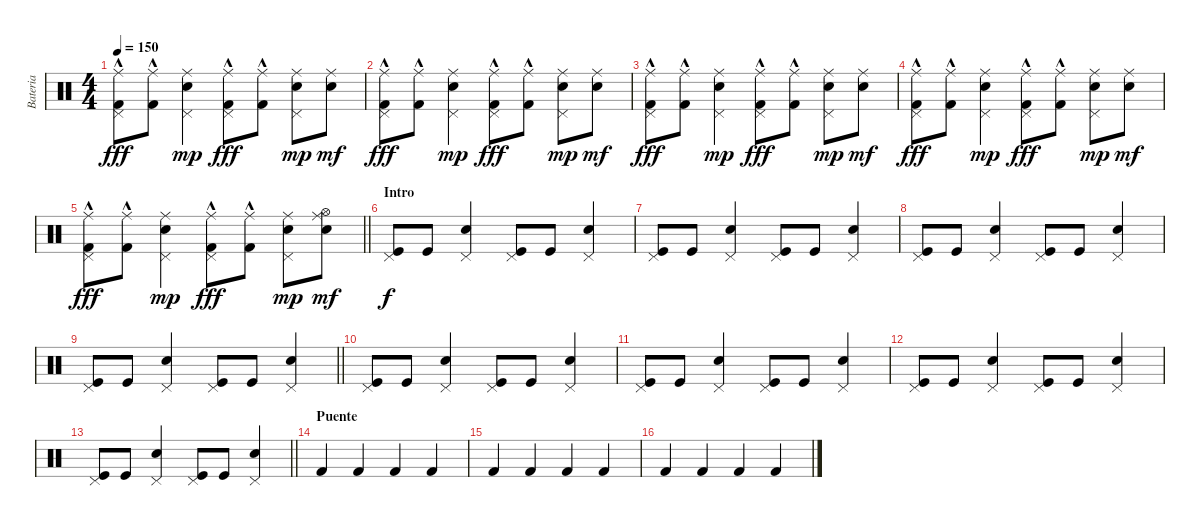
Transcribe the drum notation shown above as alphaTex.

\track ("Bateria" "Bateria") {instrument percussion}
\staff {score}
\articulation defaults
\ts (4 4)
\tempo 150
\clef neutral
\ks c
("Ride (middle)" "Pedal Hi-Hat (hit)" "Kick (hit) 2"{hac}).8{dy fff} ("Ride (middle)" "Kick (hit) 2"{hac}).8 ("Ride (middle)" "Pedal Hi-Hat (hit)" "Electric Snare (hit)").4{dy mp} ("Ride (middle)" "Pedal Hi-Hat (hit)" "Kick (hit) 2"{hac}).8{dy fff} ("Ride (middle)" "Kick (hit) 2"{hac}).8 ("Ride (middle)" "Pedal Hi-Hat (hit)" "Electric Snare (hit)").8{dy mp} ("Ride (middle)" "Electric Snare (hit)").8{dy mf} |
("Ride (middle)" "Pedal Hi-Hat (hit)" "Kick (hit) 2"{hac}).8{dy fff} ("Ride (middle)" "Kick (hit) 2"{hac}).8 ("Ride (middle)" "Pedal Hi-Hat (hit)" "Electric Snare (hit)").4{dy mp} ("Ride (middle)" "Pedal Hi-Hat (hit)" "Kick (hit) 2"{hac}).8{dy fff} ("Ride (middle)" "Kick (hit) 2"{hac}).8 ("Ride (middle)" "Pedal Hi-Hat (hit)" "Electric Snare (hit)").8{dy mp} ("Ride (middle)" "Electric Snare (hit)").8{dy mf} |
("Ride (middle)" "Pedal Hi-Hat (hit)" "Kick (hit) 2"{hac}).8{dy fff} ("Ride (middle)" "Kick (hit) 2"{hac}).8 ("Ride (middle)" "Pedal Hi-Hat (hit)" "Electric Snare (hit)").4{dy mp} ("Ride (middle)" "Pedal Hi-Hat (hit)" "Kick (hit) 2"{hac}).8{dy fff} ("Ride (middle)" "Kick (hit) 2"{hac}).8 ("Ride (middle)" "Pedal Hi-Hat (hit)" "Electric Snare (hit)").8{dy mp} ("Ride (middle)" "Electric Snare (hit)").8{dy mf} |
("Ride (middle)" "Pedal Hi-Hat (hit)" "Kick (hit) 2"{hac}).8{dy fff} ("Ride (middle)" "Kick (hit) 2"{hac}).8 ("Ride (middle)" "Pedal Hi-Hat (hit)" "Electric Snare (hit)").4{dy mp} ("Ride (middle)" "Pedal Hi-Hat (hit)" "Kick (hit) 2"{hac}).8{dy fff} ("Ride (middle)" "Kick (hit) 2"{hac}).8 ("Ride (middle)" "Pedal Hi-Hat (hit)" "Electric Snare (hit)").8{dy mp} ("Ride (middle)" "Electric Snare (hit)").8{dy mf} |
\barLineRight lightlight
("Ride (middle)" "Pedal Hi-Hat (hit)" "Kick (hit) 2"{hac}).8{dy fff} ("Ride (middle)" "Kick (hit) 2"{hac}).8 ("Ride (middle)" "Pedal Hi-Hat (hit)" "Electric Snare (hit)").4{dy mp} ("Ride (middle)" "Pedal Hi-Hat (hit)" "Kick (hit) 2"{hac}).8{dy fff} ("Ride (middle)" "Kick (hit) 2"{hac}).8 ("Ride (middle)" "Pedal Hi-Hat (hit)" "Electric Snare (hit)").8{dy mp} ("Ride (middle)" "Hi-Hat (open)" "Electric Snare (hit)").8{dy mf} |
\section ("" "Intro")
("Pedal Hi-Hat (hit)" "Kick (hit)").8{dy f} "Kick (hit)".8 ("Pedal Hi-Hat (hit)" "Snare (hit) 2").4 ("Pedal Hi-Hat (hit)" "Kick (hit)").8 "Kick (hit)".8 ("Pedal Hi-Hat (hit)" "Snare (hit) 2").4 |
("Pedal Hi-Hat (hit)" "Kick (hit)").8 "Kick (hit)".8 ("Pedal Hi-Hat (hit)" "Snare (hit) 2").4 ("Pedal Hi-Hat (hit)" "Kick (hit)").8 "Kick (hit)".8 ("Pedal Hi-Hat (hit)" "Snare (hit) 2").4 |
("Pedal Hi-Hat (hit)" "Kick (hit)").8 "Kick (hit)".8 ("Pedal Hi-Hat (hit)" "Snare (hit) 2").4 ("Pedal Hi-Hat (hit)" "Kick (hit)").8 "Kick (hit)".8 ("Pedal Hi-Hat (hit)" "Snare (hit) 2").4 |
\barLineRight lightlight
("Pedal Hi-Hat (hit)" "Kick (hit)").8 "Kick (hit)".8 ("Pedal Hi-Hat (hit)" "Snare (hit) 2").4 ("Pedal Hi-Hat (hit)" "Kick (hit)").8 "Kick (hit)".8 ("Pedal Hi-Hat (hit)" "Snare (hit) 2").4 |
("Pedal Hi-Hat (hit)" "Kick (hit)").8 "Kick (hit)".8 ("Pedal Hi-Hat (hit)" "Snare (hit) 2").4 ("Pedal Hi-Hat (hit)" "Kick (hit)").8 "Kick (hit)".8 ("Pedal Hi-Hat (hit)" "Snare (hit) 2").4 |
("Pedal Hi-Hat (hit)" "Kick (hit)").8 "Kick (hit)".8 ("Pedal Hi-Hat (hit)" "Snare (hit) 2").4 ("Pedal Hi-Hat (hit)" "Kick (hit)").8 "Kick (hit)".8 ("Pedal Hi-Hat (hit)" "Snare (hit) 2").4 |
("Pedal Hi-Hat (hit)" "Kick (hit)").8 "Kick (hit)".8 ("Pedal Hi-Hat (hit)" "Snare (hit) 2").4 ("Pedal Hi-Hat (hit)" "Kick (hit)").8 "Kick (hit)".8 ("Pedal Hi-Hat (hit)" "Snare (hit) 2").4 |
\barLineRight lightlight
("Pedal Hi-Hat (hit)" "Kick (hit)").8 "Kick (hit)".8 ("Pedal Hi-Hat (hit)" "Snare (hit) 2").4 ("Pedal Hi-Hat (hit)" "Kick (hit)").8 "Kick (hit)".8 ("Pedal Hi-Hat (hit)" "Snare (hit) 2").4 |
\section ("" "Puente")
"Kick (hit) 2".4 "Kick (hit) 2".4 "Kick (hit) 2".4 "Kick (hit) 2".4 |
"Kick (hit) 2".4 "Kick (hit) 2".4 "Kick (hit) 2".4 "Kick (hit) 2".4 |
"Kick (hit) 2".4 "Kick (hit) 2".4 "Kick (hit) 2".4 "Kick (hit) 2".4
